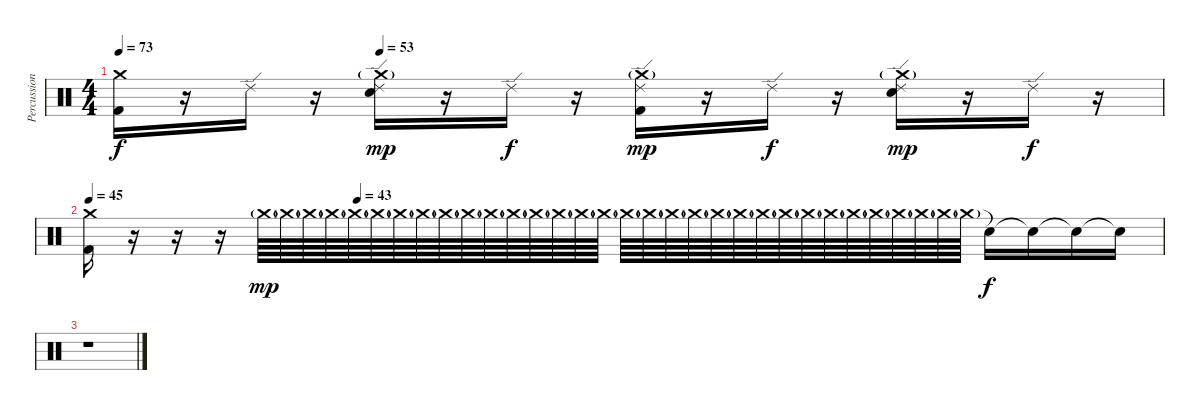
\track ("Percussion" "Percussion") {instrument percussion}
\staff {score}
\articulation defaults
\ts (4 4)
\tempo 73
\tempo (53 0.25)
\clef neutral
\ks c
("Crash medium (hit)" "Kick (hit) 2").16{dy f} r.16 "Ride (edge) 2".16 r.16 ("Crash medium (hit)"{g} "Ride (edge) 2" "Snare (hit) 2").16{dy mp} r.16 "Ride (edge) 2".16{dy f} r.16 ("Crash medium (hit)"{g} "Ride (edge) 2" "Kick (hit) 2").16{dy mp} r.16 "Ride (edge) 2".16{dy f} r.16 ("Crash medium (hit)"{g} "Ride (edge) 2" "Snare (hit) 2").16{dy mp} r.16 "Ride (edge) 2".16{dy f} r.16 |
\tempo 45
\tempo (43 0.25)
("Crash medium (hit)" "Kick (hit) 2").16 r.16 r.16 r.16 "Crash medium (hit)"{g}.64{bd 30 dy mp volume 5} "Crash medium (hit)"{g}.64{bu 30} "Crash medium (hit)"{g}.64{bd 30} "Crash medium (hit)"{g}.64{bu 30} "Crash medium (hit)"{g}.64{bd 30} "Crash medium (hit)"{g}.64{bu 30} "Crash medium (hit)"{g}.64{bd 30} "Crash medium (hit)"{g}.64{bu 30 volume 2} "Crash medium (hit)"{g}.64{bd 30} "Crash medium (hit)"{g}.64{bu 30} "Crash medium (hit)"{g}.64{bd 30} "Crash medium (hit)"{g}.64{bu 30} "Crash medium (hit)"{g}.64{bd 30} "Crash medium (hit)"{g}.64{bu 30} "Crash medium (hit)"{g}.64{bd 30} "Crash medium (hit)"{g}.64{bu 30} "Crash medium (hit)"{g}.64{bd 30} "Crash medium (hit)"{g}.64{bu 30} "Crash medium (hit)"{g}.64{bd 30} "Crash medium (hit)"{g}.64{bu 30} "Crash medium (hit)"{g}.64{bd 30} "Crash medium (hit)"{g}.64{bu 30} "Crash medium (hit)"{g}.64{bd 30} "Crash medium (hit)"{g}.64{bu 30} "Crash medium (hit)"{g}.64{bd 30} "Crash medium (hit)"{g}.64{bu 30} "Crash medium (hit)"{g}.64{bd 30} "Crash medium (hit)"{g}.64{bu 30} "Crash medium (hit)"{g}.64{bd 30} "Crash medium (hit)"{g}.64{bu 30} "Crash medium (hit)"{g}.64{bd 30} "Crash medium (hit)"{g}.64{bu 30} "Snare (hit)"{t}.16{dy f} "Snare (hit)"{t}.16 "Snare (hit)"{t}.16 "Snare (hit)"{t}.16 |
r.1
